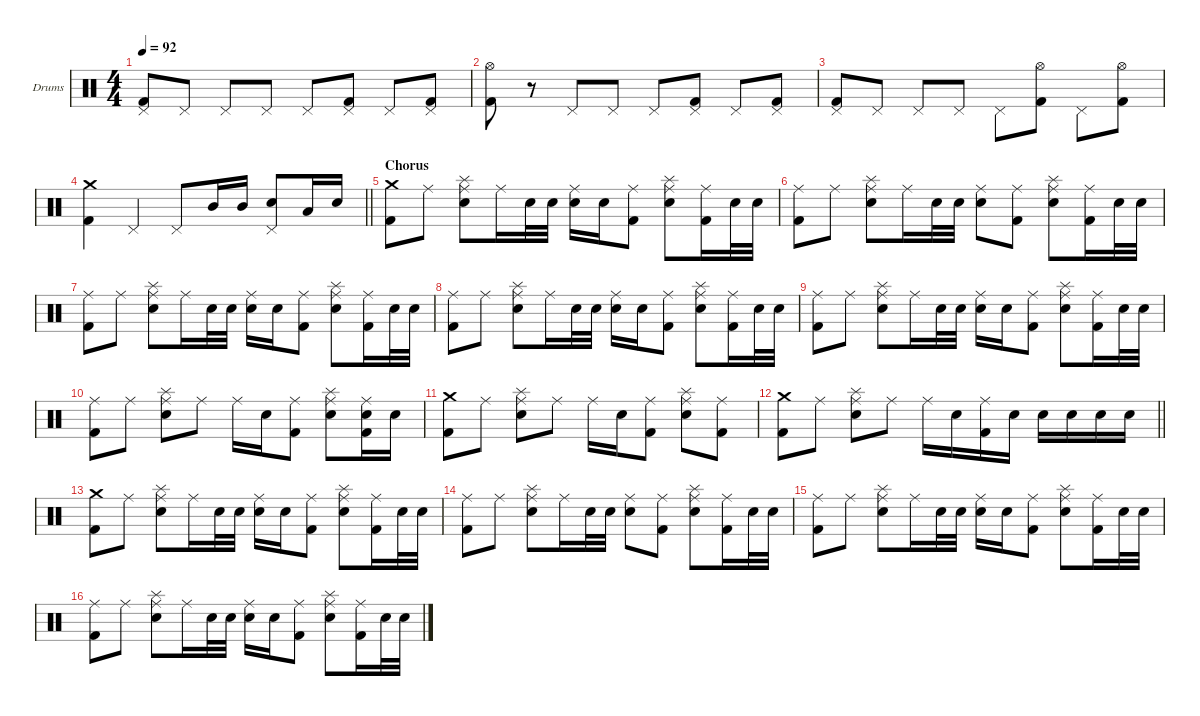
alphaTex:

\hideDynamics
\bracketExtendMode nobrackets
\firstSystemTrackNameOrientation horizontal
\otherSystemsTrackNameOrientation horizontal
\track ("Drumkit" "Drums") {instrument percussion}
\staff {score}
\articulation defaults
\ts (4 4)
\tempo 92
\clef neutral
\ks aminor
("Pedal Hi-Hat (hit)" "Kick (hit) 2").8{dy f} "Pedal Hi-Hat (hit)".8{dy p} "Pedal Hi-Hat (hit)".8{dy f} "Pedal Hi-Hat (hit)".8{dy p} "Pedal Hi-Hat (hit)".8{dy f} ("Pedal Hi-Hat (hit)" "Kick (hit) 2").8{dy p} "Pedal Hi-Hat (hit)".8{dy f} ("Pedal Hi-Hat (hit)" "Kick (hit) 2").8{dy p} |
("Hi-Hat (open)" "Kick (hit) 2").8{dy mf} r.8 "Pedal Hi-Hat (hit)".8{dy f} "Pedal Hi-Hat (hit)".8{dy p} "Pedal Hi-Hat (hit)".8{dy f} ("Pedal Hi-Hat (hit)" "Kick (hit) 2").8{dy p} "Pedal Hi-Hat (hit)".8{dy f} ("Pedal Hi-Hat (hit)" "Kick (hit) 2").8{dy p} |
("Pedal Hi-Hat (hit)" "Kick (hit) 2").8{dy f} "Pedal Hi-Hat (hit)".8{dy p} "Pedal Hi-Hat (hit)".8{dy f} "Pedal Hi-Hat (hit)".8{dy p} "Pedal Hi-Hat (hit)".8{dy f} ("Hi-Hat (open)" "Kick (hit) 2").8{dy p} "Pedal Hi-Hat (hit)".8{dy f} ("Hi-Hat (open)" "Kick (hit) 2").8{dy p} |
\barLineRight lightlight
("Crash medium (hit)" "Kick (hit) 2").4{dy mp} "Pedal Hi-Hat (hit)".4 "Pedal Hi-Hat (hit)".8 "Mid Tom (hit)".16 "Mid Tom (hit)".16{dy mf} ("Pedal Hi-Hat (hit)" "Snare (hit) 2").8{dy mp} "Low Tom (hit)".16{dy mf} "Snare (hit) 2".16{dy f} |
\section ("" "Chorus")
("Crash medium (hit)" "Kick (hit) 2").8 "Ride (middle)".8{dy mf} ("Ride (middle)" "Splash (hit)" "Snare (hit) 2").8{dy f} "Ride (middle)".16{dy mf} "Snare (hit) 2".32{dy pp} "Snare (hit) 2".32{dy p} ("Ride (middle)" "Snare (hit) 2").16{dy f} "Snare (hit) 2".16{dy mp} ("Ride (middle)" "Kick (hit) 2").8{dy mf} ("Ride (middle)" "Splash (hit)" "Snare (hit) 2").8{dy f} ("Ride (middle)" "Kick (hit) 2").16{dy mf} "Snare (hit) 2".32{dy ppp} "Snare (hit) 2".32{dy pp} |
("Ride (middle)" "Kick (hit) 2").8{dy f} "Ride (middle)".8{dy mf} ("Ride (middle)" "Splash (hit)" "Snare (hit) 2").8{dy f} "Ride (middle)".16{dy mf} "Snare (hit) 2".32{dy pp} "Snare (hit) 2".32{dy p} ("Ride (middle)" "Snare (hit) 2").8{dy f} ("Ride (middle)" "Kick (hit) 2").8{dy mf} ("Ride (middle)" "Splash (hit)" "Snare (hit) 2").8{dy f} ("Ride (middle)" "Kick (hit) 2").16{dy mf} "Snare (hit) 2".32{dy ppp} "Snare (hit) 2".32{dy pp} |
("Ride (middle)" "Kick (hit) 2").8{dy f} "Ride (middle)".8{dy mf} ("Ride (middle)" "Splash (hit)" "Snare (hit) 2").8{dy f} "Ride (middle)".16{dy mf} "Snare (hit) 2".32{dy pp} "Snare (hit) 2".32{dy p} ("Ride (middle)" "Snare (hit) 2").16{dy f} "Snare (hit) 2".16{dy mp} ("Ride (middle)" "Kick (hit) 2").8{dy mf} ("Ride (middle)" "Splash (hit)" "Snare (hit) 2").8{dy f} ("Ride (middle)" "Kick (hit) 2").16{dy mf} "Snare (hit) 2".32{dy ppp} "Snare (hit) 2".32{dy pp} |
("Ride (middle)" "Kick (hit) 2").8{dy f} "Ride (middle)".8{dy mf} ("Ride (middle)" "Splash (hit)" "Snare (hit) 2").8{dy f} "Ride (middle)".16{dy mf} "Snare (hit) 2".32{dy ppp} "Snare (hit) 2".32{dy pp} ("Ride (middle)" "Snare (hit) 2").16{dy f} "Snare (hit) 2".16{dy mf} ("Ride (middle)" "Kick (hit) 2").8 ("Ride (middle)" "Splash (hit)" "Snare (hit) 2").8{dy f} ("Ride (middle)" "Kick (hit) 2").16{dy mf} "Snare (hit) 2".32{dy ppp} "Snare (hit) 2".32{dy pp} |
("Ride (middle)" "Kick (hit) 2").8{dy f} "Ride (middle)".8{dy mf} ("Ride (middle)" "Splash (hit)" "Snare (hit) 2").8{dy f} "Ride (middle)".16{dy mf} "Snare (hit) 2".32{dy pp} "Snare (hit) 2".32{dy p} ("Ride (middle)" "Snare (hit) 2").16{dy f} "Snare (hit) 2".16{dy mp} ("Ride (middle)" "Kick (hit) 2").8{dy mf} ("Ride (middle)" "Splash (hit)" "Snare (hit) 2").8{dy f} ("Ride (middle)" "Kick (hit) 2").16{dy mf} "Snare (hit) 2".32{dy ppp} "Snare (hit) 2".32{dy pp} |
("Ride (middle)" "Kick (hit) 2").8{dy f} "Ride (middle)".8{dy mf} ("Ride (middle)" "Splash (hit)" "Snare (hit) 2").8{dy f} "Ride (middle)".8{dy mf} "Ride (middle)".16{dy f} "Snare (hit) 2".16{dy mp} ("Ride (middle)" "Kick (hit) 2").8{dy mf} ("Ride (middle)" "Splash (hit)" "Snare (hit) 2").8{dy f} ("Ride (middle)" "Snare (hit) 2" "Kick (hit) 2").16{dy mf} "Snare (hit) 2".16{dy f} |
("Crash medium (hit)" "Kick (hit) 2").8{dy mf} "Ride (middle)".8 ("Ride (middle)" "Splash (hit)" "Snare (hit) 2").8{dy f} "Ride (middle)".8{dy mf} "Ride (middle)".16{dy f} "Snare (hit) 2".16{dy mp} ("Ride (middle)" "Kick (hit) 2").8{dy mf} ("Ride (middle)" "Splash (hit)" "Snare (hit) 2").8{dy f} ("Ride (middle)" "Kick (hit) 2").8{dy mf} |
\barLineRight lightlight
("Crash medium (hit)" "Kick (hit) 2").8{dy f} "Ride (middle)".8{dy mf} ("Ride (middle)" "Splash (hit)" "Snare (hit) 2").8{dy f} "Ride (middle)".8{dy mf} "Ride (middle)".16{dy f} "Snare (hit) 2".16 ("Ride (middle)" "Kick (hit) 2").16 "Snare (hit) 2".16{dy mf} "Snare (hit) 2".16 "Snare (hit) 2".16{dy f} "Snare (hit) 2".16 "Snare (hit) 2".16 |
("Crash medium (hit)" "Kick (hit) 2").8 "Ride (middle)".8{dy mf} ("Ride (middle)" "Splash (hit)" "Snare (hit) 2").8{dy f} "Ride (middle)".16{dy mf} "Snare (hit) 2".32{dy pp} "Snare (hit) 2".32{dy p} ("Ride (middle)" "Snare (hit) 2").16{dy f} "Snare (hit) 2".16{dy mp} ("Ride (middle)" "Kick (hit) 2").8{dy mf} ("Ride (middle)" "Splash (hit)" "Snare (hit) 2").8{dy f} ("Ride (middle)" "Kick (hit) 2").16{dy mf} "Snare (hit) 2".32{dy ppp} "Snare (hit) 2".32{dy pp} |
("Ride (middle)" "Kick (hit) 2").8{dy f} "Ride (middle)".8{dy mf} ("Ride (middle)" "Splash (hit)" "Snare (hit) 2").8{dy f} "Ride (middle)".16{dy mf} "Snare (hit) 2".32{dy pp} "Snare (hit) 2".32{dy p} ("Ride (middle)" "Snare (hit) 2").8{dy f} ("Ride (middle)" "Kick (hit) 2").8{dy mf} ("Ride (middle)" "Splash (hit)" "Snare (hit) 2").8{dy f} ("Ride (middle)" "Kick (hit) 2").16{dy mf} "Snare (hit) 2".32{dy ppp} "Snare (hit) 2".32{dy pp} |
("Ride (middle)" "Kick (hit) 2").8{dy f} "Ride (middle)".8{dy mf} ("Ride (middle)" "Splash (hit)" "Snare (hit) 2").8{dy f} "Ride (middle)".16{dy mf} "Snare (hit) 2".32{dy pp} "Snare (hit) 2".32{dy p} ("Ride (middle)" "Snare (hit) 2").16{dy f} "Snare (hit) 2".16{dy mp} ("Ride (middle)" "Kick (hit) 2").8{dy mf} ("Ride (middle)" "Splash (hit)" "Snare (hit) 2").8{dy f} ("Ride (middle)" "Kick (hit) 2").16{dy mf} "Snare (hit) 2".32{dy ppp} "Snare (hit) 2".32{dy pp} |
("Ride (middle)" "Kick (hit) 2").8{dy f} "Ride (middle)".8{dy mf} ("Ride (middle)" "Splash (hit)" "Snare (hit) 2").8{dy f} "Ride (middle)".16{dy mf} "Snare (hit) 2".32{dy ppp} "Snare (hit) 2".32{dy pp} ("Ride (middle)" "Snare (hit) 2").16{dy f} "Snare (hit) 2".16{dy mf} ("Ride (middle)" "Kick (hit) 2").8 ("Ride (middle)" "Splash (hit)" "Snare (hit) 2").8{dy f} ("Ride (middle)" "Kick (hit) 2").16{dy mf} "Snare (hit) 2".32{dy ppp} "Snare (hit) 2".32{dy pp}
